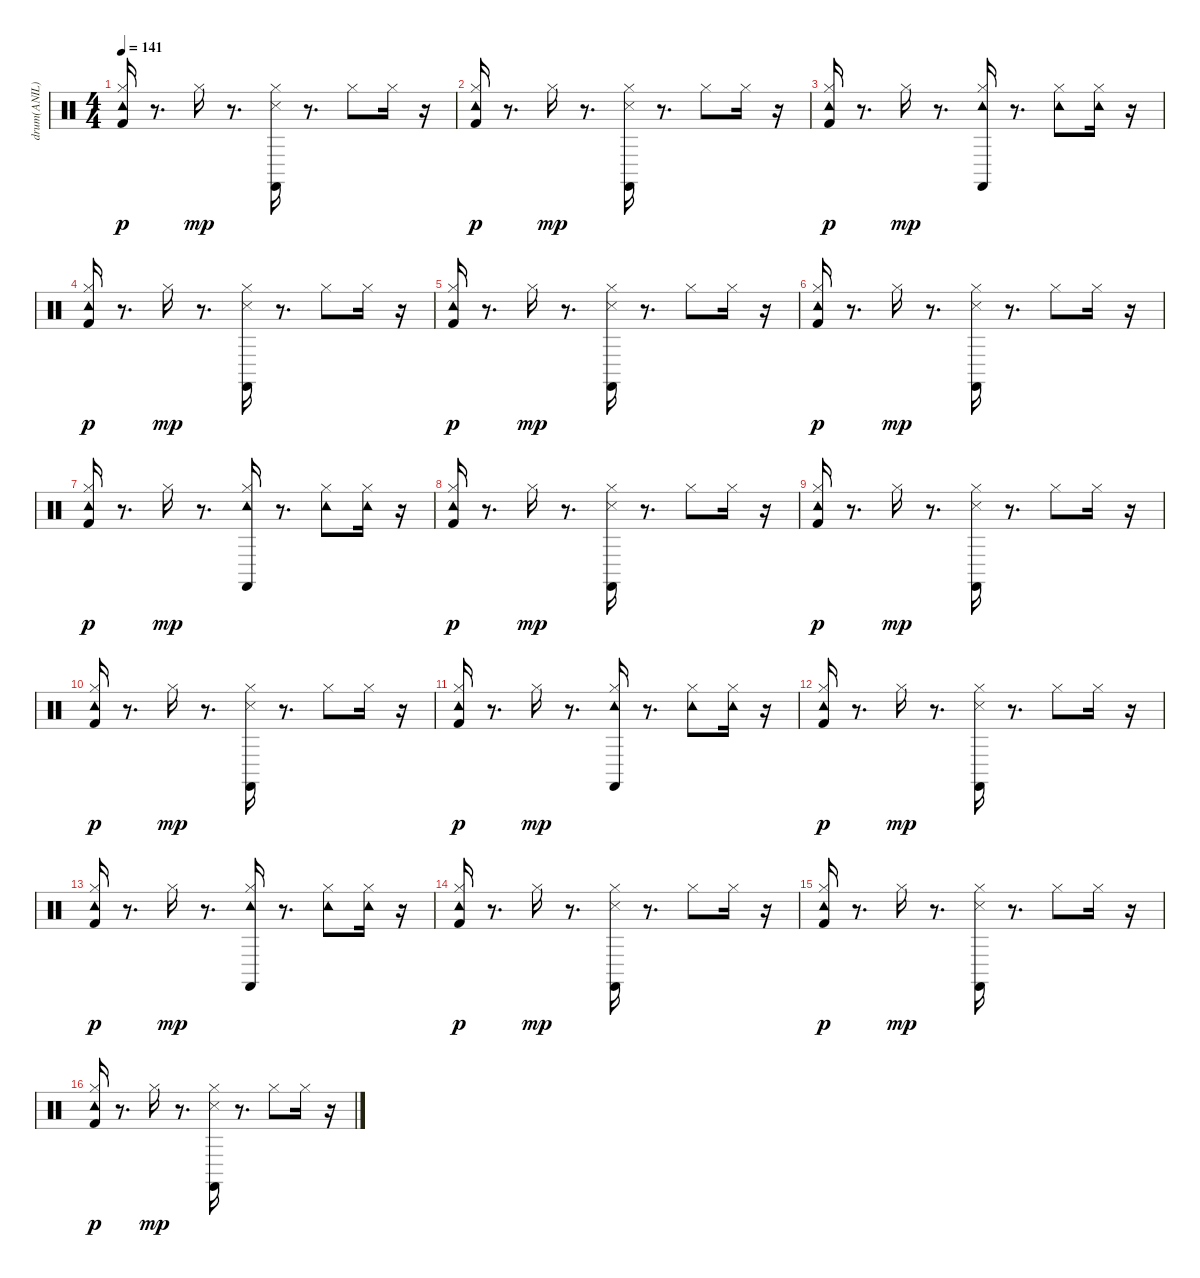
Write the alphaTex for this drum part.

\track ("drum(ANIL)" "drum(ANIL)") {instrument percussion}
\staff {score}
\articulation defaults
\ts (4 4)
\tempo 141
\clef neutral
\ks c
("Kick (hit) 2" "Hi-Hat (closed)" "Tambourine (hit)").16{dy p} r.8{d} "Hi-Hat (closed)".16{dy mp} r.8{d} ("Castanets (hit)" "Snare (side stick) 3" "Hi-Hat (closed)").16 r.8{d} "Hi-Hat (closed)".8 "Hi-Hat (closed)".16 r.16 |
("Kick (hit) 2" "Hi-Hat (closed)" "Tambourine (hit)").16{dy p} r.8{d} "Hi-Hat (closed)".16{dy mp} r.8{d} ("Castanets (hit)" "Snare (side stick) 3" "Hi-Hat (closed)").16 r.8{d} "Hi-Hat (closed)".8 "Hi-Hat (closed)".16 r.16 |
("Kick (hit) 2" "Hi-Hat (closed)" "Tambourine (hit)").16{dy p} r.8{d} "Hi-Hat (closed)".16{dy mp} r.8{d} ("Castanets (hit)" "Tambourine (hit)" "Hi-Hat (closed)").16 r.8{d} ("Hi-Hat (closed)" "Tambourine (hit)").8 ("Hi-Hat (closed)" "Tambourine (hit)").16 r.16 |
("Kick (hit) 2" "Hi-Hat (closed)" "Tambourine (hit)").16{dy p} r.8{d} "Hi-Hat (closed)".16{dy mp} r.8{d} ("Castanets (hit)" "Snare (side stick) 3" "Hi-Hat (closed)").16 r.8{d} "Hi-Hat (closed)".8 "Hi-Hat (closed)".16 r.16 |
("Kick (hit) 2" "Hi-Hat (closed)" "Tambourine (hit)").16{dy p} r.8{d} "Hi-Hat (closed)".16{dy mp} r.8{d} ("Castanets (hit)" "Snare (side stick) 3" "Hi-Hat (closed)").16 r.8{d} "Hi-Hat (closed)".8 "Hi-Hat (closed)".16 r.16 |
("Kick (hit) 2" "Hi-Hat (closed)" "Tambourine (hit)").16{dy p} r.8{d} "Hi-Hat (closed)".16{dy mp} r.8{d} ("Castanets (hit)" "Snare (side stick) 3" "Hi-Hat (closed)").16 r.8{d} "Hi-Hat (closed)".8 "Hi-Hat (closed)".16 r.16 |
("Kick (hit) 2" "Hi-Hat (closed)" "Tambourine (hit)").16{dy p} r.8{d} "Hi-Hat (closed)".16{dy mp} r.8{d} ("Castanets (hit)" "Tambourine (hit)" "Hi-Hat (closed)").16 r.8{d} ("Hi-Hat (closed)" "Tambourine (hit)").8 ("Hi-Hat (closed)" "Tambourine (hit)").16 r.16 |
("Kick (hit) 2" "Hi-Hat (closed)" "Tambourine (hit)").16{dy p} r.8{d} "Hi-Hat (closed)".16{dy mp} r.8{d} ("Castanets (hit)" "Snare (side stick) 3" "Hi-Hat (closed)").16 r.8{d} "Hi-Hat (closed)".8 "Hi-Hat (closed)".16 r.16 |
("Kick (hit) 2" "Hi-Hat (closed)" "Tambourine (hit)").16{dy p} r.8{d} "Hi-Hat (closed)".16{dy mp} r.8{d} ("Castanets (hit)" "Snare (side stick) 3" "Hi-Hat (closed)").16 r.8{d} "Hi-Hat (closed)".8 "Hi-Hat (closed)".16 r.16 |
("Kick (hit) 2" "Hi-Hat (closed)" "Tambourine (hit)").16{dy p} r.8{d} "Hi-Hat (closed)".16{dy mp} r.8{d} ("Castanets (hit)" "Snare (side stick) 3" "Hi-Hat (closed)").16 r.8{d} "Hi-Hat (closed)".8 "Hi-Hat (closed)".16 r.16 |
("Kick (hit) 2" "Hi-Hat (closed)" "Tambourine (hit)").16{dy p} r.8{d} "Hi-Hat (closed)".16{dy mp} r.8{d} ("Castanets (hit)" "Tambourine (hit)" "Hi-Hat (closed)").16 r.8{d} ("Hi-Hat (closed)" "Tambourine (hit)").8 ("Hi-Hat (closed)" "Tambourine (hit)").16 r.16 |
("Kick (hit) 2" "Hi-Hat (closed)" "Tambourine (hit)").16{dy p} r.8{d} "Hi-Hat (closed)".16{dy mp} r.8{d} ("Castanets (hit)" "Snare (side stick) 3" "Hi-Hat (closed)").16 r.8{d} "Hi-Hat (closed)".8 "Hi-Hat (closed)".16 r.16 |
("Kick (hit) 2" "Hi-Hat (closed)" "Tambourine (hit)").16{dy p} r.8{d} "Hi-Hat (closed)".16{dy mp} r.8{d} ("Castanets (hit)" "Tambourine (hit)" "Hi-Hat (closed)").16 r.8{d} ("Hi-Hat (closed)" "Tambourine (hit)").8 ("Hi-Hat (closed)" "Tambourine (hit)").16 r.16 |
("Kick (hit) 2" "Hi-Hat (closed)" "Tambourine (hit)").16{dy p} r.8{d} "Hi-Hat (closed)".16{dy mp} r.8{d} ("Castanets (hit)" "Snare (side stick) 3" "Hi-Hat (closed)").16 r.8{d} "Hi-Hat (closed)".8 "Hi-Hat (closed)".16 r.16 |
("Kick (hit) 2" "Hi-Hat (closed)" "Tambourine (hit)").16{dy p} r.8{d} "Hi-Hat (closed)".16{dy mp} r.8{d} ("Castanets (hit)" "Snare (side stick) 3" "Hi-Hat (closed)").16 r.8{d} "Hi-Hat (closed)".8 "Hi-Hat (closed)".16 r.16 |
("Kick (hit) 2" "Hi-Hat (closed)" "Tambourine (hit)").16{dy p} r.8{d} "Hi-Hat (closed)".16{dy mp} r.8{d} ("Castanets (hit)" "Snare (side stick) 3" "Hi-Hat (closed)").16 r.8{d} "Hi-Hat (closed)".8 "Hi-Hat (closed)".16 r.16
